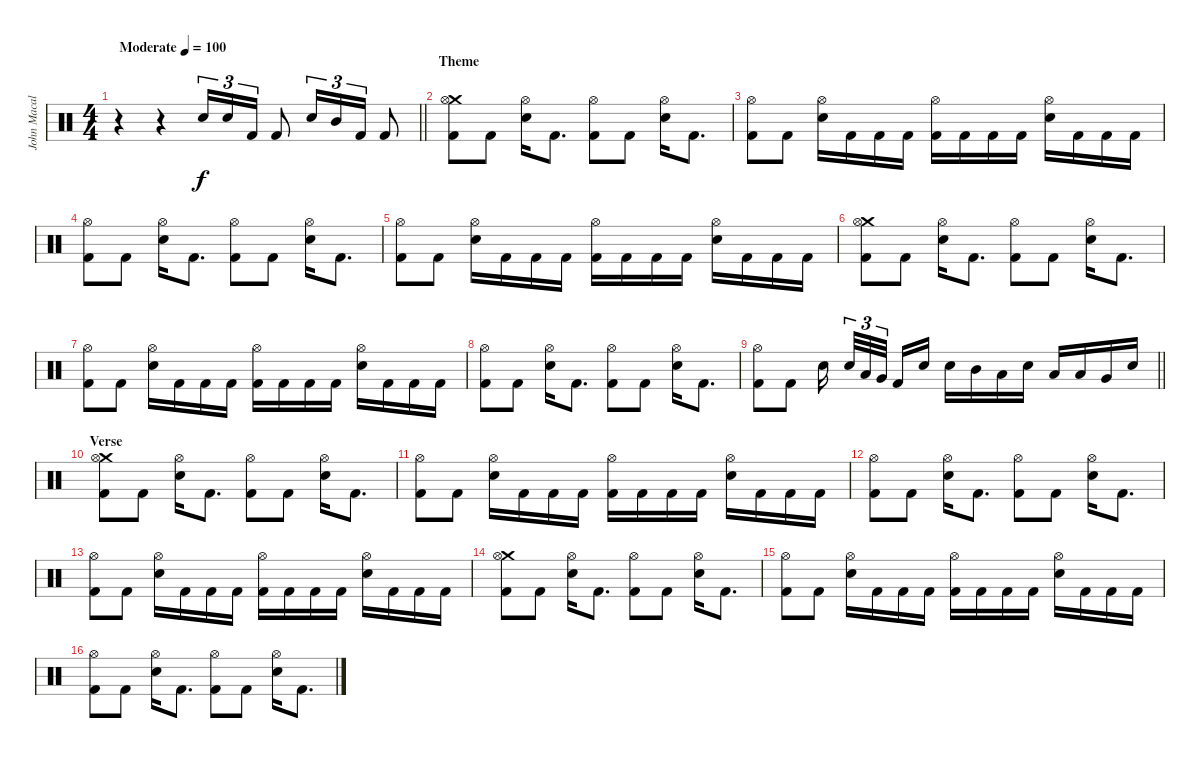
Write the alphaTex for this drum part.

\track ("John Macaluso" "John Macal") {instrument percussion}
\staff {score}
\articulation defaults
\ts (4 4)
\tempo (100 "Moderate")
\clef neutral
\barLineRight lightlight
\ks c
r.4{dy f} r.4 "Snare (hit) 2".16{tu (3 2)} "Snare (hit) 2".16{tu (3 2)} "Kick (hit) 2".16{tu (3 2)} "Kick (hit) 2".8 "Snare (hit) 2".16{tu (3 2)} "Mid Tom (hit)".16{tu (3 2)} "Kick (hit) 2".16{tu (3 2)} "Kick (hit) 2".8 |
\section ("" "Theme")
("Crash medium (hit)" "Hi-Hat (open)" "Kick (hit) 2").8 "Kick (hit) 2".8 ("Hi-Hat (open)" "Snare (hit) 2").16 "Kick (hit) 2".8{d} ("Hi-Hat (open)" "Kick (hit) 2").8 "Kick (hit) 2".8 ("Hi-Hat (open)" "Snare (hit) 2").16 "Kick (hit) 2".8{d} |
("Hi-Hat (open)" "Kick (hit) 2").8 "Kick (hit) 2".8 ("Hi-Hat (open)" "Snare (hit) 2").16 "Kick (hit) 2".16 "Kick (hit) 2".16 "Kick (hit) 2".16 ("Hi-Hat (open)" "Kick (hit) 2").16 "Kick (hit) 2".16 "Kick (hit) 2".16 "Kick (hit) 2".16 ("Hi-Hat (open)" "Snare (hit) 2").16 "Kick (hit) 2".16 "Kick (hit) 2".16 "Kick (hit) 2".16 |
("Hi-Hat (open)" "Kick (hit) 2").8 "Kick (hit) 2".8 ("Hi-Hat (open)" "Snare (hit) 2").16 "Kick (hit) 2".8{d} ("Hi-Hat (open)" "Kick (hit) 2").8 "Kick (hit) 2".8 ("Hi-Hat (open)" "Snare (hit) 2").16 "Kick (hit) 2".8{d} |
("Hi-Hat (open)" "Kick (hit) 2").8 "Kick (hit) 2".8 ("Hi-Hat (open)" "Snare (hit) 2").16 "Kick (hit) 2".16 "Kick (hit) 2".16 "Kick (hit) 2".16 ("Hi-Hat (open)" "Kick (hit) 2").16 "Kick (hit) 2".16 "Kick (hit) 2".16 "Kick (hit) 2".16 ("Hi-Hat (open)" "Snare (hit) 2").16 "Kick (hit) 2".16 "Kick (hit) 2".16 "Kick (hit) 2".16 |
("Crash medium (hit)" "Hi-Hat (open)" "Kick (hit) 2").8 "Kick (hit) 2".8 ("Hi-Hat (open)" "Snare (hit) 2").16 "Kick (hit) 2".8{d} ("Hi-Hat (open)" "Kick (hit) 2").8 "Kick (hit) 2".8 ("Hi-Hat (open)" "Snare (hit) 2").16 "Kick (hit) 2".8{d} |
("Hi-Hat (open)" "Kick (hit) 2").8 "Kick (hit) 2".8 ("Hi-Hat (open)" "Snare (hit) 2").16 "Kick (hit) 2".16 "Kick (hit) 2".16 "Kick (hit) 2".16 ("Hi-Hat (open)" "Kick (hit) 2").16 "Kick (hit) 2".16 "Kick (hit) 2".16 "Kick (hit) 2".16 ("Hi-Hat (open)" "Snare (hit) 2").16 "Kick (hit) 2".16 "Kick (hit) 2".16 "Kick (hit) 2".16 |
("Hi-Hat (open)" "Kick (hit) 2").8 "Kick (hit) 2".8 ("Hi-Hat (open)" "Snare (hit) 2").16 "Kick (hit) 2".8{d} ("Hi-Hat (open)" "Kick (hit) 2").8 "Kick (hit) 2".8 ("Hi-Hat (open)" "Snare (hit) 2").16 "Kick (hit) 2".8{d} |
\barLineRight lightlight
("Hi-Hat (open)" "Kick (hit) 2").8 "Kick (hit) 2".8 "Snare (hit) 2".16{beam splitsecondary} "Snare (hit) 2".32{tu (3 2)} "Low Tom (hit)".32{tu (3 2)} "Very Low Tom (hit)".32{tu (3 2) beam splitsecondary} "Kick (hit) 2".16 "Snare (hit) 2".16 "Snare (hit) 2".16 "Mid Tom (hit)".16 "Low Tom (hit)".16 "Snare (hit) 2".16 "Low Tom (hit)".16 "Low Tom (hit)".16 "Very Low Tom (hit)".16 "Snare (hit) 2".16 |
\section ("" "Verse")
("Crash medium (hit)" "Hi-Hat (open)" "Kick (hit) 2").8 "Kick (hit) 2".8 ("Hi-Hat (open)" "Snare (hit) 2").16 "Kick (hit) 2".8{d} ("Hi-Hat (open)" "Kick (hit) 2").8 "Kick (hit) 2".8 ("Hi-Hat (open)" "Snare (hit) 2").16 "Kick (hit) 2".8{d} |
("Hi-Hat (open)" "Kick (hit) 2").8 "Kick (hit) 2".8 ("Hi-Hat (open)" "Snare (hit) 2").16 "Kick (hit) 2".16 "Kick (hit) 2".16 "Kick (hit) 2".16 ("Hi-Hat (open)" "Kick (hit) 2").16 "Kick (hit) 2".16 "Kick (hit) 2".16 "Kick (hit) 2".16 ("Hi-Hat (open)" "Snare (hit) 2").16 "Kick (hit) 2".16 "Kick (hit) 2".16 "Kick (hit) 2".16 |
("Hi-Hat (open)" "Kick (hit) 2").8 "Kick (hit) 2".8 ("Hi-Hat (open)" "Snare (hit) 2").16 "Kick (hit) 2".8{d} ("Hi-Hat (open)" "Kick (hit) 2").8 "Kick (hit) 2".8 ("Hi-Hat (open)" "Snare (hit) 2").16 "Kick (hit) 2".8{d} |
("Hi-Hat (open)" "Kick (hit) 2").8 "Kick (hit) 2".8 ("Hi-Hat (open)" "Snare (hit) 2").16 "Kick (hit) 2".16 "Kick (hit) 2".16 "Kick (hit) 2".16 ("Hi-Hat (open)" "Kick (hit) 2").16 "Kick (hit) 2".16 "Kick (hit) 2".16 "Kick (hit) 2".16 ("Hi-Hat (open)" "Snare (hit) 2").16 "Kick (hit) 2".16 "Kick (hit) 2".16 "Kick (hit) 2".16 |
("Crash medium (hit)" "Hi-Hat (open)" "Kick (hit) 2").8 "Kick (hit) 2".8 ("Hi-Hat (open)" "Snare (hit) 2").16 "Kick (hit) 2".8{d} ("Hi-Hat (open)" "Kick (hit) 2").8 "Kick (hit) 2".8 ("Hi-Hat (open)" "Snare (hit) 2").16 "Kick (hit) 2".8{d} |
("Hi-Hat (open)" "Kick (hit) 2").8 "Kick (hit) 2".8 ("Hi-Hat (open)" "Snare (hit) 2").16 "Kick (hit) 2".16 "Kick (hit) 2".16 "Kick (hit) 2".16 ("Hi-Hat (open)" "Kick (hit) 2").16 "Kick (hit) 2".16 "Kick (hit) 2".16 "Kick (hit) 2".16 ("Hi-Hat (open)" "Snare (hit) 2").16 "Kick (hit) 2".16 "Kick (hit) 2".16 "Kick (hit) 2".16 |
("Hi-Hat (open)" "Kick (hit) 2").8 "Kick (hit) 2".8 ("Hi-Hat (open)" "Snare (hit) 2").16 "Kick (hit) 2".8{d} ("Hi-Hat (open)" "Kick (hit) 2").8 "Kick (hit) 2".8 ("Hi-Hat (open)" "Snare (hit) 2").16 "Kick (hit) 2".8{d}
